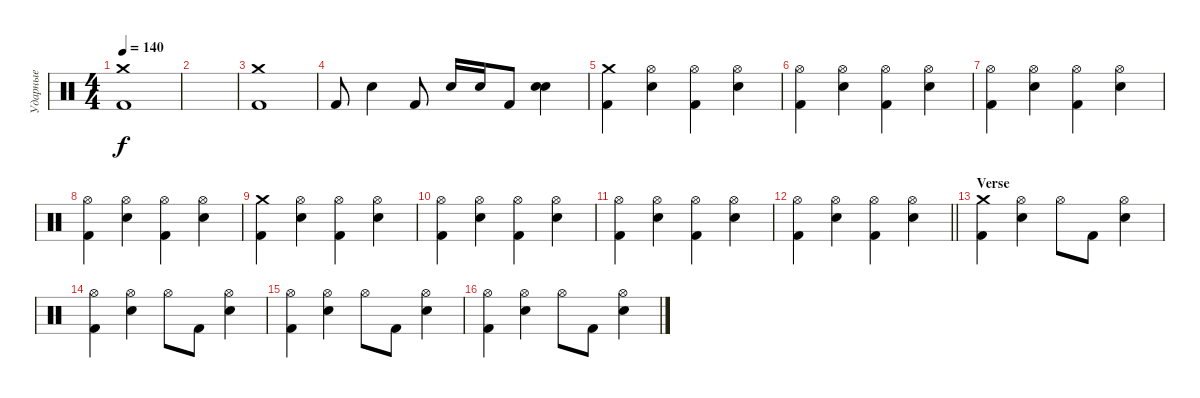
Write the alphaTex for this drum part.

\track ("Ударные" "Ударные") {instrument percussion}
\staff {score}
\articulation defaults
\ts (4 4)
\tempo 140
\clef neutral
\ks c
("Crash medium (hit)" "Kick (hit) 2").1{dy f} |
|
("Crash medium (hit)" "Kick (hit) 2").1 |
"Kick (hit) 2".8 "Electric Snare (hit)".4 "Kick (hit) 2".8 "Electric Snare (hit)".16 "Electric Snare (hit)".16 "Kick (hit) 2".8 ("Electric Snare (hit)" "Electric Snare (hit)").4 |
("Crash medium (hit)" "Kick (hit) 2").4 ("Hi-Hat (open)" "Electric Snare (hit)").4 ("Hi-Hat (open)" "Kick (hit) 2").4 ("Hi-Hat (open)" "Electric Snare (hit)").4 |
("Hi-Hat (open)" "Kick (hit) 2").4 ("Hi-Hat (open)" "Electric Snare (hit)").4 ("Hi-Hat (open)" "Kick (hit) 2").4 ("Hi-Hat (open)" "Electric Snare (hit)").4 |
("Hi-Hat (open)" "Kick (hit) 2").4 ("Hi-Hat (open)" "Electric Snare (hit)").4 ("Hi-Hat (open)" "Kick (hit) 2").4 ("Hi-Hat (open)" "Electric Snare (hit)").4 |
("Hi-Hat (open)" "Kick (hit) 2").4 ("Hi-Hat (open)" "Electric Snare (hit)").4 ("Hi-Hat (open)" "Kick (hit) 2").4 ("Hi-Hat (open)" "Electric Snare (hit)").4 |
("Crash medium (hit)" "Kick (hit) 2").4 ("Hi-Hat (open)" "Electric Snare (hit)").4 ("Hi-Hat (open)" "Kick (hit) 2").4 ("Hi-Hat (open)" "Electric Snare (hit)").4 |
("Hi-Hat (open)" "Kick (hit) 2").4 ("Hi-Hat (open)" "Electric Snare (hit)").4 ("Hi-Hat (open)" "Kick (hit) 2").4 ("Hi-Hat (open)" "Electric Snare (hit)").4 |
("Hi-Hat (open)" "Kick (hit) 2").4 ("Hi-Hat (open)" "Electric Snare (hit)").4 ("Hi-Hat (open)" "Kick (hit) 2").4 ("Hi-Hat (open)" "Electric Snare (hit)").4 |
\barLineRight lightlight
("Hi-Hat (open)" "Kick (hit) 2").4 ("Hi-Hat (open)" "Electric Snare (hit)").4 ("Hi-Hat (open)" "Kick (hit) 2").4 ("Hi-Hat (open)" "Electric Snare (hit)").4 |
\section ("" "Verse")
("Crash medium (hit)" "Kick (hit) 2").4 ("Hi-Hat (open)" "Electric Snare (hit)").4 "Hi-Hat (open)".8 "Kick (hit) 2".8 ("Hi-Hat (open)" "Electric Snare (hit)").4 |
("Hi-Hat (open)" "Kick (hit) 2").4 ("Hi-Hat (open)" "Electric Snare (hit)").4 "Hi-Hat (open)".8 "Kick (hit) 2".8 ("Hi-Hat (open)" "Electric Snare (hit)").4 |
("Hi-Hat (open)" "Kick (hit) 2").4 ("Hi-Hat (open)" "Electric Snare (hit)").4 "Hi-Hat (open)".8 "Kick (hit) 2".8 ("Hi-Hat (open)" "Electric Snare (hit)").4 |
("Hi-Hat (open)" "Kick (hit) 2").4 ("Hi-Hat (open)" "Electric Snare (hit)").4 "Hi-Hat (open)".8 "Kick (hit) 2".8 ("Hi-Hat (open)" "Electric Snare (hit)").4
